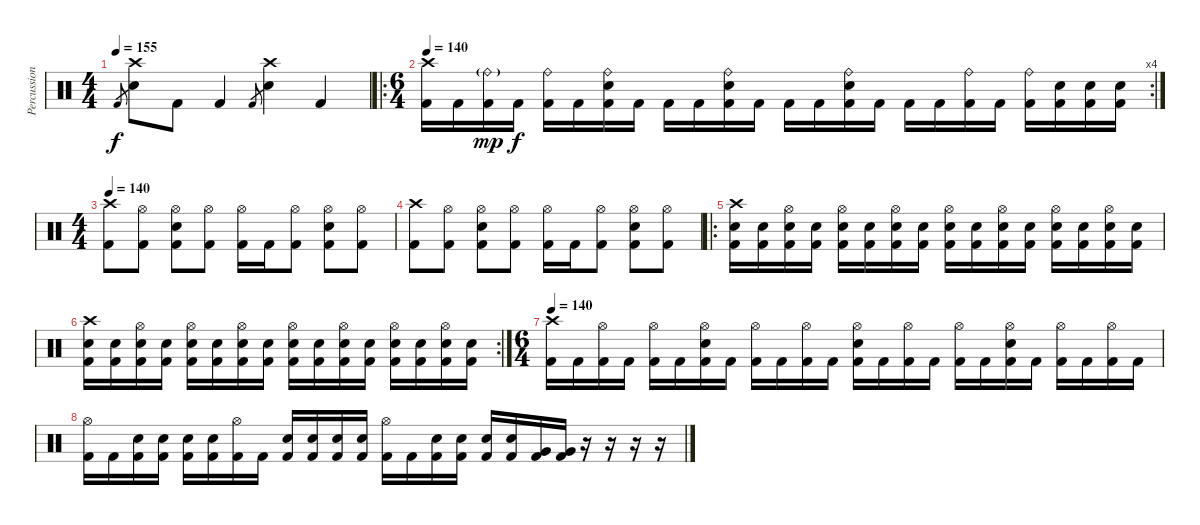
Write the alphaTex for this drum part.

\track ("Percussion" "Percussion") {instrument percussion}
\staff {score}
\articulation defaults
\ts (4 4)
\tempo 155
\clef neutral
\ks c "Kick (hit) 2".8{gr dy f}
("Crash high (hit)" "Snare (hit) 2").8 "Kick (hit) 2".8 "Kick (hit) 2".4 "Kick (hit) 2".8{gr} ("Crash high (hit)" "Snare (hit) 2").4 "Kick (hit) 2".4 |
\ro
\rc 4
\ts (6 4)
\tempo 140
("Crash high (hit)" "Kick (hit) 2").16 "Kick (hit) 2".16 ("Ride (bell)"{g} "Kick (hit) 2").16{dy mp} "Kick (hit) 2".16{dy f} ("Ride (bell)" "Kick (hit) 2").16 "Kick (hit) 2".16 ("Ride (bell)" "Snare (hit) 2" "Kick (hit) 2").16 "Kick (hit) 2".16 "Kick (hit) 2".16 "Kick (hit) 2".16 ("Ride (bell)" "Snare (hit) 2" "Kick (hit) 2").16 "Kick (hit) 2".16 "Kick (hit) 2".16 "Kick (hit) 2".16 ("Ride (bell)" "Snare (hit) 2" "Kick (hit) 2").16 "Kick (hit) 2".16 "Kick (hit) 2".16 "Kick (hit) 2".16 ("Ride (bell)" "Kick (hit) 2").16 "Kick (hit) 2".16 ("Ride (bell)" "Kick (hit) 2").16 ("Snare (hit) 2" "Kick (hit) 2").16 ("Snare (hit) 2" "Kick (hit) 2").16 ("Snare (hit) 2" "Kick (hit) 2").16 |
\ts (4 4)
\tempo 133
\tempo 140
("Crash high (hit)" "Kick (hit) 2").8 ("Hi-Hat (open)" "Kick (hit) 2").8 ("Hi-Hat (open)" "Snare (hit) 2" "Kick (hit) 2").8 ("Hi-Hat (open)" "Kick (hit) 2").8 ("Hi-Hat (open)" "Kick (hit) 2").16 "Kick (hit) 2".16 ("Hi-Hat (open)" "Kick (hit) 2").8 ("Hi-Hat (open)" "Snare (hit) 2" "Kick (hit) 2").8 ("Hi-Hat (open)" "Kick (hit) 2").8 |
("Crash high (hit)" "Kick (hit) 2").8 ("Hi-Hat (open)" "Kick (hit) 2").8 ("Hi-Hat (open)" "Snare (hit) 2" "Kick (hit) 2").8 ("Hi-Hat (open)" "Kick (hit) 2").8 ("Hi-Hat (open)" "Kick (hit) 2").16 "Kick (hit) 2".16 ("Hi-Hat (open)" "Kick (hit) 2").8 ("Hi-Hat (open)" "Snare (hit) 2" "Kick (hit) 2").8 ("Hi-Hat (open)" "Kick (hit) 2").8 |
\ro
("Crash high (hit)" "Snare (hit) 2" "Kick (hit) 2").16 ("Snare (hit) 2" "Kick (hit) 2").16 ("Hi-Hat (open)" "Snare (hit) 2" "Kick (hit) 2").16 ("Snare (hit) 2" "Kick (hit) 2").16 ("Hi-Hat (open)" "Snare (hit) 2" "Kick (hit) 2").16 ("Snare (hit) 2" "Kick (hit) 2").16 ("Hi-Hat (open)" "Snare (hit) 2" "Kick (hit) 2").16 ("Snare (hit) 2" "Kick (hit) 2").16 ("Hi-Hat (open)" "Snare (hit) 2" "Kick (hit) 2").16 ("Snare (hit) 2" "Kick (hit) 2").16 ("Hi-Hat (open)" "Snare (hit) 2" "Kick (hit) 2").16 ("Snare (hit) 2" "Kick (hit) 2").16 ("Hi-Hat (open)" "Snare (hit) 2" "Kick (hit) 2").16 ("Snare (hit) 2" "Kick (hit) 2").16 ("Hi-Hat (open)" "Snare (hit) 2" "Kick (hit) 2").16 ("Snare (hit) 2" "Kick (hit) 2").16 |
\rc 2
("Crash high (hit)" "Snare (hit) 2" "Kick (hit) 2").16 ("Snare (hit) 2" "Kick (hit) 2").16 ("Hi-Hat (open)" "Snare (hit) 2" "Kick (hit) 2").16 ("Snare (hit) 2" "Kick (hit) 2").16 ("Hi-Hat (open)" "Snare (hit) 2" "Kick (hit) 2").16 ("Snare (hit) 2" "Kick (hit) 2").16 ("Hi-Hat (open)" "Snare (hit) 2" "Kick (hit) 2").16 ("Snare (hit) 2" "Kick (hit) 2").16 ("Hi-Hat (open)" "Snare (hit) 2" "Kick (hit) 2").16 ("Snare (hit) 2" "Kick (hit) 2").16 ("Hi-Hat (open)" "Snare (hit) 2" "Kick (hit) 2").16 ("Snare (hit) 2" "Kick (hit) 2").16 ("Hi-Hat (open)" "Snare (hit) 2" "Kick (hit) 2").16 ("Snare (hit) 2" "Kick (hit) 2").16 ("Hi-Hat (open)" "Snare (hit) 2" "Kick (hit) 2").16 ("Snare (hit) 2" "Kick (hit) 2").16 |
\ts (6 4)
\tempo 140
("Crash high (hit)" "Kick (hit) 2").16 "Kick (hit) 2".16 ("Hi-Hat (open)" "Kick (hit) 2").16 "Kick (hit) 2".16 ("Hi-Hat (open)" "Kick (hit) 2").16 "Kick (hit) 2".16 ("Hi-Hat (open)" "Snare (hit) 2" "Kick (hit) 2").16 "Kick (hit) 2".16 ("Hi-Hat (open)" "Kick (hit) 2").16 "Kick (hit) 2".16 ("Hi-Hat (open)" "Kick (hit) 2").16 "Kick (hit) 2".16 ("Hi-Hat (open)" "Snare (hit) 2" "Kick (hit) 2").16 "Kick (hit) 2".16 ("Hi-Hat (open)" "Kick (hit) 2").16 "Kick (hit) 2".16 ("Hi-Hat (open)" "Kick (hit) 2").16 "Kick (hit) 2".16 ("Hi-Hat (open)" "Snare (hit) 2" "Kick (hit) 2").16 "Kick (hit) 2".16 ("Hi-Hat (open)" "Kick (hit) 2").16 "Kick (hit) 2".16 ("Hi-Hat (open)" "Kick (hit) 2").16 "Kick (hit) 2".16 |
("Hi-Hat (open)" "Kick (hit) 2").16 "Kick (hit) 2".16 ("Snare (hit) 2" "Kick (hit) 2").16 ("Snare (hit) 2" "Kick (hit) 2").16 ("Snare (hit) 2" "Kick (hit) 2").16 ("Snare (hit) 2" "Kick (hit) 2").16 ("Hi-Hat (open)" "Kick (hit) 2").16 "Kick (hit) 2".16 ("Snare (hit) 2" "Kick (hit) 2").16 ("Snare (hit) 2" "Kick (hit) 2").16 ("Snare (hit) 2" "Kick (hit) 2").16 ("Snare (hit) 2" "Kick (hit) 2").16 ("Hi-Hat (open)" "Kick (hit) 2").16 "Kick (hit) 2".16 ("Snare (hit) 2" "Kick (hit) 2").16 ("Snare (hit) 2" "Kick (hit) 2").16 ("Snare (hit) 2" "Kick (hit) 2").16 ("Snare (hit) 2" "Kick (hit) 2").16 ("Very Low Tom (hit)" "Kick (hit) 2").16 ("Very Low Tom (hit)" "Kick (hit) 2").16 r.16 r.16 r.16 r.16
